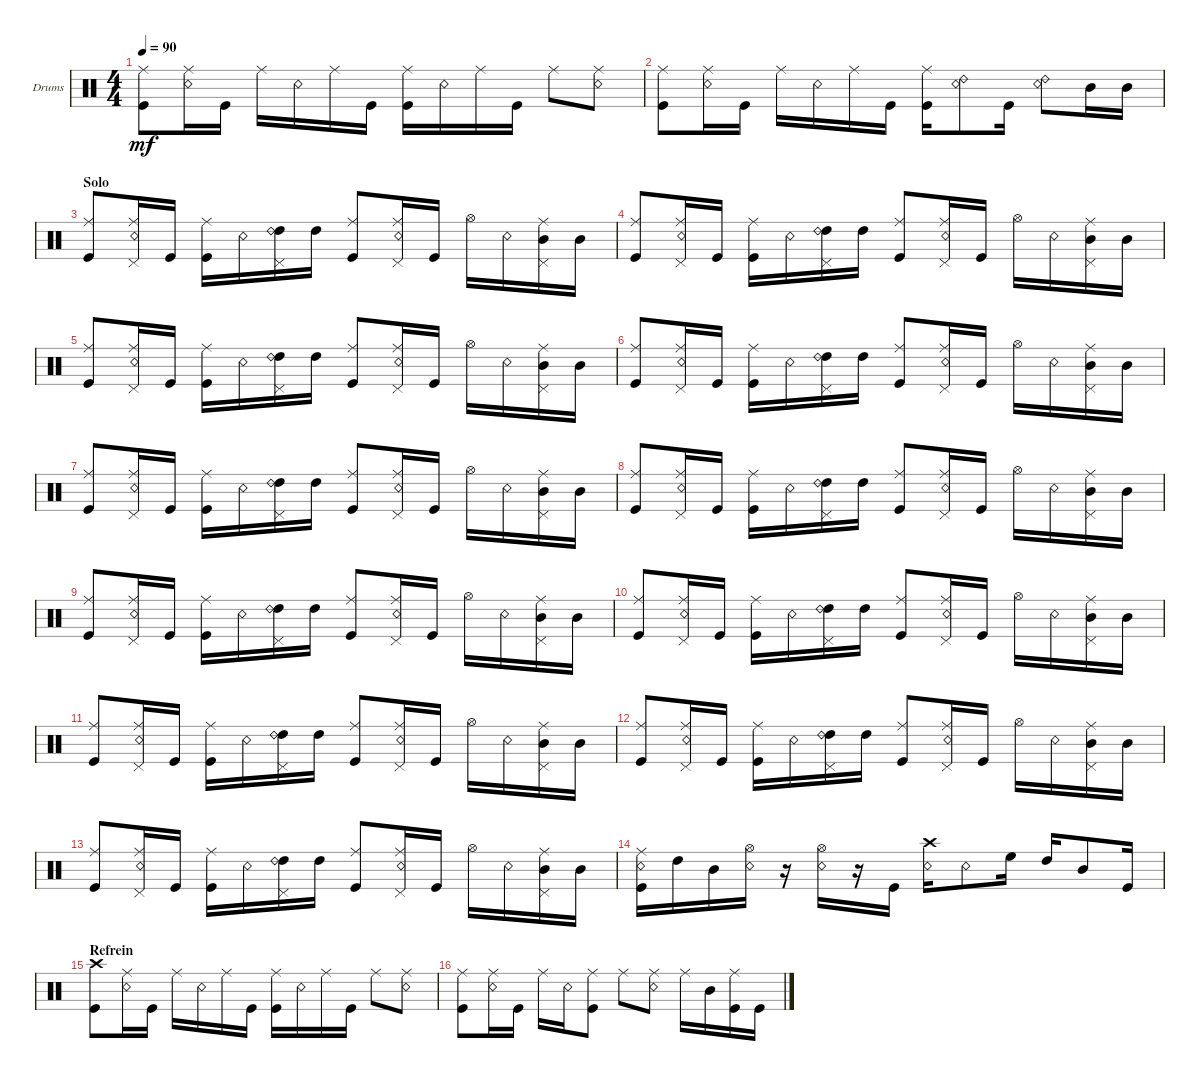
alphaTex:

\defaultSystemsLayout 4
\bracketExtendMode groupsimilarinstruments
\firstSystemTrackNameOrientation horizontal
\otherSystemsTrackNameOrientation horizontal
\track ("Drumkit" "Drums") {instrument percussion}
\staff {score}
\articulation defaults
\ts (4 4)
\tempo 90
\clef neutral
\ks c
("Kick (hit)" "Ride (middle)").8{dy mf} ("Ride (middle)" "Snare (rim shot)").16 "Kick (hit)".16 "Ride (middle)".16 "Snare (rim shot)".16 "Ride (middle)".16 "Kick (hit)".16 ("Kick (hit)" "Ride (middle)").16 "Snare (rim shot)".16 "Ride (middle)".16 "Kick (hit)".16 "Ride (middle)".8 ("Snare (rim shot)" "Ride (middle)").8 |
("Ride (middle)" "Kick (hit)").8 ("Ride (middle)" "Snare (rim shot)").16 "Kick (hit)".16 "Ride (middle)".16 "Snare (rim shot)".16 "Ride (middle)".16 "Kick (hit)".16 ("Ride (middle)" "Kick (hit)").16 ("Snare (rim shot)" "Ride (bell) 2").8 "Kick (hit)".16 ("Ride (bell) 2" "Snare (rim shot)").8 "Mid Tom (hit)".16 "Mid Tom (hit)".16 |
\section ("" "Solo")
("Ride (middle)" "Kick (hit)").8 ("Snare (rim shot)" "Ride (middle)" "Pedal Hi-Hat (hit)").16 "Kick (hit)".16 ("Kick (hit)" "Ride (middle)").16 "Snare (rim shot)".16 ("High Tom (hit)" "Ride (bell) 2" "Pedal Hi-Hat (hit)").16 "High Tom (hit)".16 ("Ride (middle)" "Kick (hit)").8 ("Snare (rim shot)" "Ride (middle)" "Pedal Hi-Hat (hit)").16 "Kick (hit)".16 "Hi-Hat (open)".16 "Snare (rim shot)".16 ("Mid Tom (hit)" "Ride (middle)" "Pedal Hi-Hat (hit)").16 "Mid Tom (hit)".16 |
("Ride (middle)" "Kick (hit)").8 ("Snare (rim shot)" "Ride (middle)" "Pedal Hi-Hat (hit)").16 "Kick (hit)".16 ("Kick (hit)" "Ride (middle)").16 "Snare (rim shot)".16 ("High Tom (hit)" "Ride (bell) 2" "Pedal Hi-Hat (hit)").16 "High Tom (hit)".16 ("Ride (middle)" "Kick (hit)").8 ("Snare (rim shot)" "Ride (middle)" "Pedal Hi-Hat (hit)").16 "Kick (hit)".16 "Hi-Hat (open)".16 "Snare (rim shot)".16 ("Mid Tom (hit)" "Ride (middle)" "Pedal Hi-Hat (hit)").16 "Mid Tom (hit)".16 |
("Ride (middle)" "Kick (hit)").8 ("Snare (rim shot)" "Ride (middle)" "Pedal Hi-Hat (hit)").16 "Kick (hit)".16 ("Kick (hit)" "Ride (middle)").16 "Snare (rim shot)".16 ("High Tom (hit)" "Ride (bell) 2" "Pedal Hi-Hat (hit)").16 "High Tom (hit)".16 ("Ride (middle)" "Kick (hit)").8 ("Snare (rim shot)" "Ride (middle)" "Pedal Hi-Hat (hit)").16 "Kick (hit)".16 "Hi-Hat (open)".16 "Snare (rim shot)".16 ("Mid Tom (hit)" "Ride (middle)" "Pedal Hi-Hat (hit)").16 "Mid Tom (hit)".16 |
("Ride (middle)" "Kick (hit)").8 ("Snare (rim shot)" "Ride (middle)" "Pedal Hi-Hat (hit)").16 "Kick (hit)".16 ("Kick (hit)" "Ride (middle)").16 "Snare (rim shot)".16 ("High Tom (hit)" "Ride (bell) 2" "Pedal Hi-Hat (hit)").16 "High Tom (hit)".16 ("Ride (middle)" "Kick (hit)").8 ("Snare (rim shot)" "Ride (middle)" "Pedal Hi-Hat (hit)").16 "Kick (hit)".16 "Hi-Hat (open)".16 "Snare (rim shot)".16 ("Mid Tom (hit)" "Ride (middle)" "Pedal Hi-Hat (hit)").16 "Mid Tom (hit)".16 |
("Ride (middle)" "Kick (hit)").8 ("Snare (rim shot)" "Ride (middle)" "Pedal Hi-Hat (hit)").16 "Kick (hit)".16 ("Kick (hit)" "Ride (middle)").16 "Snare (rim shot)".16 ("High Tom (hit)" "Ride (bell) 2" "Pedal Hi-Hat (hit)").16 "High Tom (hit)".16 ("Ride (middle)" "Kick (hit)").8 ("Snare (rim shot)" "Ride (middle)" "Pedal Hi-Hat (hit)").16 "Kick (hit)".16 "Hi-Hat (open)".16 "Snare (rim shot)".16 ("Mid Tom (hit)" "Ride (middle)" "Pedal Hi-Hat (hit)").16 "Mid Tom (hit)".16 |
("Ride (middle)" "Kick (hit)").8 ("Snare (rim shot)" "Ride (middle)" "Pedal Hi-Hat (hit)").16 "Kick (hit)".16 ("Kick (hit)" "Ride (middle)").16 "Snare (rim shot)".16 ("High Tom (hit)" "Ride (bell) 2" "Pedal Hi-Hat (hit)").16 "High Tom (hit)".16 ("Ride (middle)" "Kick (hit)").8 ("Snare (rim shot)" "Ride (middle)" "Pedal Hi-Hat (hit)").16 "Kick (hit)".16 "Hi-Hat (open)".16 "Snare (rim shot)".16 ("Mid Tom (hit)" "Ride (middle)" "Pedal Hi-Hat (hit)").16 "Mid Tom (hit)".16 |
("Ride (middle)" "Kick (hit)").8 ("Snare (rim shot)" "Ride (middle)" "Pedal Hi-Hat (hit)").16 "Kick (hit)".16 ("Kick (hit)" "Ride (middle)").16 "Snare (rim shot)".16 ("High Tom (hit)" "Ride (bell) 2" "Pedal Hi-Hat (hit)").16 "High Tom (hit)".16 ("Ride (middle)" "Kick (hit)").8 ("Snare (rim shot)" "Ride (middle)" "Pedal Hi-Hat (hit)").16 "Kick (hit)".16 "Hi-Hat (open)".16 "Snare (rim shot)".16 ("Mid Tom (hit)" "Ride (middle)" "Pedal Hi-Hat (hit)").16 "Mid Tom (hit)".16 |
("Ride (middle)" "Kick (hit)").8 ("Snare (rim shot)" "Ride (middle)" "Pedal Hi-Hat (hit)").16 "Kick (hit)".16 ("Kick (hit)" "Ride (middle)").16 "Snare (rim shot)".16 ("High Tom (hit)" "Ride (bell) 2" "Pedal Hi-Hat (hit)").16 "High Tom (hit)".16 ("Ride (middle)" "Kick (hit)").8 ("Snare (rim shot)" "Ride (middle)" "Pedal Hi-Hat (hit)").16 "Kick (hit)".16 "Hi-Hat (open)".16 "Snare (rim shot)".16 ("Mid Tom (hit)" "Ride (middle)" "Pedal Hi-Hat (hit)").16 "Mid Tom (hit)".16 |
("Ride (middle)" "Kick (hit)").8 ("Snare (rim shot)" "Ride (middle)" "Pedal Hi-Hat (hit)").16 "Kick (hit)".16 ("Kick (hit)" "Ride (middle)").16 "Snare (rim shot)".16 ("High Tom (hit)" "Ride (bell) 2" "Pedal Hi-Hat (hit)").16 "High Tom (hit)".16 ("Ride (middle)" "Kick (hit)").8 ("Snare (rim shot)" "Ride (middle)" "Pedal Hi-Hat (hit)").16 "Kick (hit)".16 "Hi-Hat (open)".16 "Snare (rim shot)".16 ("Mid Tom (hit)" "Ride (middle)" "Pedal Hi-Hat (hit)").16 "Mid Tom (hit)".16 |
("Ride (middle)" "Kick (hit)").8 ("Snare (rim shot)" "Ride (middle)" "Pedal Hi-Hat (hit)").16 "Kick (hit)".16 ("Kick (hit)" "Ride (middle)").16 "Snare (rim shot)".16 ("High Tom (hit)" "Ride (bell) 2" "Pedal Hi-Hat (hit)").16 "High Tom (hit)".16 ("Ride (middle)" "Kick (hit)").8 ("Snare (rim shot)" "Ride (middle)" "Pedal Hi-Hat (hit)").16 "Kick (hit)".16 "Hi-Hat (open)".16 "Snare (rim shot)".16 ("Mid Tom (hit)" "Ride (middle)" "Pedal Hi-Hat (hit)").16 "Mid Tom (hit)".16 |
("Ride (middle)" "Kick (hit)").8 ("Snare (rim shot)" "Ride (middle)" "Pedal Hi-Hat (hit)").16 "Kick (hit)".16 ("Kick (hit)" "Ride (middle)").16 "Snare (rim shot)".16 ("High Tom (hit)" "Ride (bell) 2" "Pedal Hi-Hat (hit)").16 "High Tom (hit)".16 ("Ride (middle)" "Kick (hit)").8 ("Snare (rim shot)" "Ride (middle)" "Pedal Hi-Hat (hit)").16 "Kick (hit)".16 "Hi-Hat (open)".16 "Snare (rim shot)".16 ("Mid Tom (hit)" "Ride (middle)" "Pedal Hi-Hat (hit)").16 "Mid Tom (hit)".16 |
("Snare (rim shot)" "Kick (hit)" "Ride (middle)").16 "High Tom (hit)".16 "Mid Tom (hit)".16 ("Snare (rim shot)" "Hi-Hat (open)").16 r.16 ("Hi-Hat (open)" "Snare (rim shot)").16 r.16 "Kick (hit)".16 ("Snare (rim shot)" "Crash high (hit)").16 "Snare (rim shot)".8 "High Floor Tom (hit)".16 "High Tom (hit)".16 "Mid Tom (hit)".8 "Kick (hit)".16 |
\section ("" "Refrein")
("Kick (hit)" "Crash high (hit)").8 ("Ride (middle)" "Snare (rim shot)").16 "Kick (hit)".16 "Ride (middle)".16 "Snare (rim shot)".16 "Ride (middle)".16 "Kick (hit)".16 ("Kick (hit)" "Ride (middle)").16 "Snare (rim shot)".16 "Ride (middle)".16 "Kick (hit)".16 "Ride (middle)".8 ("Snare (rim shot)" "Ride (middle)").8 |
("Ride (middle)" "Kick (hit)").8 ("Ride (middle)" "Snare (rim shot)").16 "Kick (hit)".16 "Ride (middle)".16 "Snare (rim shot)".16 ("Ride (middle)" "Kick (hit)").8 "Ride (middle)".8 ("Ride (middle)" "Snare (rim shot)").8 "Ride (middle)".16 "Mid Tom (hit)".16 ("Kick (hit)" "Ride (middle)").16 "Kick (hit)".16
